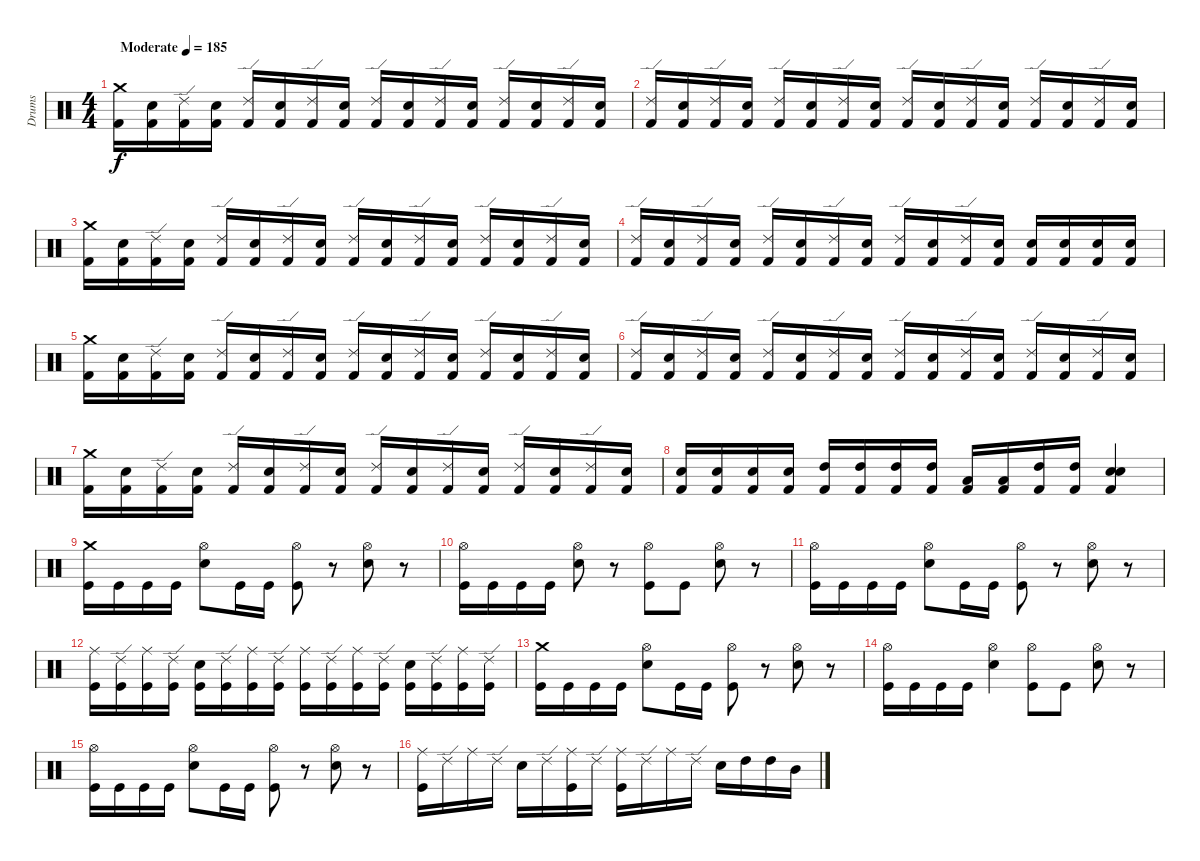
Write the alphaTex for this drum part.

\track ("Drums" "Drums") {instrument percussion}
\staff {score}
\articulation defaults
\ts (4 4)
\tempo (185 "Moderate")
\clef neutral
\ks c
("Crash medium (hit)" "Kick (hit) 2").16{dy f} ("Snare (hit) 2" "Kick (hit) 2").16 ("Ride (edge) 2" "Kick (hit) 2").16 ("Snare (hit) 2" "Kick (hit) 2").16 ("Ride (edge) 2" "Kick (hit) 2").16 ("Snare (hit) 2" "Kick (hit) 2").16 ("Ride (edge) 2" "Kick (hit) 2").16 ("Snare (hit) 2" "Kick (hit) 2").16 ("Ride (edge) 2" "Kick (hit) 2").16 ("Snare (hit) 2" "Kick (hit) 2").16 ("Ride (edge) 2" "Kick (hit) 2").16 ("Snare (hit) 2" "Kick (hit) 2").16 ("Ride (edge) 2" "Kick (hit) 2").16 ("Snare (hit) 2" "Kick (hit) 2").16 ("Ride (edge) 2" "Kick (hit) 2").16 ("Snare (hit) 2" "Kick (hit) 2").16 |
("Ride (edge) 2" "Kick (hit) 2").16 ("Snare (hit) 2" "Kick (hit) 2").16 ("Ride (edge) 2" "Kick (hit) 2").16 ("Snare (hit) 2" "Kick (hit) 2").16 ("Ride (edge) 2" "Kick (hit) 2").16 ("Snare (hit) 2" "Kick (hit) 2").16 ("Ride (edge) 2" "Kick (hit) 2").16 ("Snare (hit) 2" "Kick (hit) 2").16 ("Ride (edge) 2" "Kick (hit) 2").16 ("Snare (hit) 2" "Kick (hit) 2").16 ("Ride (edge) 2" "Kick (hit) 2").16 ("Snare (hit) 2" "Kick (hit) 2").16 ("Ride (edge) 2" "Kick (hit) 2").16 ("Snare (hit) 2" "Kick (hit) 2").16 ("Ride (edge) 2" "Kick (hit) 2").16 ("Snare (hit) 2" "Kick (hit) 2").16 |
("Crash medium (hit)" "Kick (hit) 2").16 ("Snare (hit) 2" "Kick (hit) 2").16 ("Ride (edge) 2" "Kick (hit) 2").16 ("Snare (hit) 2" "Kick (hit) 2").16 ("Ride (edge) 2" "Kick (hit) 2").16 ("Snare (hit) 2" "Kick (hit) 2").16 ("Ride (edge) 2" "Kick (hit) 2").16 ("Snare (hit) 2" "Kick (hit) 2").16 ("Ride (edge) 2" "Kick (hit) 2").16 ("Snare (hit) 2" "Kick (hit) 2").16 ("Ride (edge) 2" "Kick (hit) 2").16 ("Snare (hit) 2" "Kick (hit) 2").16 ("Ride (edge) 2" "Kick (hit) 2").16 ("Snare (hit) 2" "Kick (hit) 2").16 ("Ride (edge) 2" "Kick (hit) 2").16 ("Snare (hit) 2" "Kick (hit) 2").16 |
("Ride (edge) 2" "Kick (hit) 2").16 ("Snare (hit) 2" "Kick (hit) 2").16 ("Ride (edge) 2" "Kick (hit) 2").16 ("Snare (hit) 2" "Kick (hit) 2").16 ("Ride (edge) 2" "Kick (hit) 2").16 ("Snare (hit) 2" "Kick (hit) 2").16 ("Ride (edge) 2" "Kick (hit) 2").16 ("Snare (hit) 2" "Kick (hit) 2").16 ("Ride (edge) 2" "Kick (hit) 2").16 ("Snare (hit) 2" "Kick (hit) 2").16 ("Ride (edge) 2" "Kick (hit) 2").16 ("Snare (hit) 2" "Kick (hit) 2").16 ("Snare (hit) 2" "Kick (hit) 2").16 ("Snare (hit) 2" "Kick (hit) 2").16 ("Snare (hit) 2" "Kick (hit) 2").16 ("Snare (hit) 2" "Kick (hit) 2").16 |
("Crash medium (hit)" "Kick (hit) 2").16 ("Snare (hit) 2" "Kick (hit) 2").16 ("Ride (edge) 2" "Kick (hit) 2").16 ("Snare (hit) 2" "Kick (hit) 2").16 ("Ride (edge) 2" "Kick (hit) 2").16 ("Snare (hit) 2" "Kick (hit) 2").16 ("Ride (edge) 2" "Kick (hit) 2").16 ("Snare (hit) 2" "Kick (hit) 2").16 ("Ride (edge) 2" "Kick (hit) 2").16 ("Snare (hit) 2" "Kick (hit) 2").16 ("Ride (edge) 2" "Kick (hit) 2").16 ("Snare (hit) 2" "Kick (hit) 2").16 ("Ride (edge) 2" "Kick (hit) 2").16 ("Snare (hit) 2" "Kick (hit) 2").16 ("Ride (edge) 2" "Kick (hit) 2").16 ("Snare (hit) 2" "Kick (hit) 2").16 |
("Ride (edge) 2" "Kick (hit) 2").16 ("Snare (hit) 2" "Kick (hit) 2").16 ("Ride (edge) 2" "Kick (hit) 2").16 ("Snare (hit) 2" "Kick (hit) 2").16 ("Ride (edge) 2" "Kick (hit) 2").16 ("Snare (hit) 2" "Kick (hit) 2").16 ("Ride (edge) 2" "Kick (hit) 2").16 ("Snare (hit) 2" "Kick (hit) 2").16 ("Ride (edge) 2" "Kick (hit) 2").16 ("Snare (hit) 2" "Kick (hit) 2").16 ("Ride (edge) 2" "Kick (hit) 2").16 ("Snare (hit) 2" "Kick (hit) 2").16 ("Ride (edge) 2" "Kick (hit) 2").16 ("Snare (hit) 2" "Kick (hit) 2").16 ("Ride (edge) 2" "Kick (hit) 2").16 ("Snare (hit) 2" "Kick (hit) 2").16 |
("Crash medium (hit)" "Kick (hit) 2").16 ("Snare (hit) 2" "Kick (hit) 2").16 ("Ride (edge) 2" "Kick (hit) 2").16 ("Snare (hit) 2" "Kick (hit) 2").16 ("Ride (edge) 2" "Kick (hit) 2").16 ("Snare (hit) 2" "Kick (hit) 2").16 ("Ride (edge) 2" "Kick (hit) 2").16 ("Snare (hit) 2" "Kick (hit) 2").16 ("Ride (edge) 2" "Kick (hit) 2").16 ("Snare (hit) 2" "Kick (hit) 2").16 ("Ride (edge) 2" "Kick (hit) 2").16 ("Snare (hit) 2" "Kick (hit) 2").16 ("Ride (edge) 2" "Kick (hit) 2").16 ("Snare (hit) 2" "Kick (hit) 2").16 ("Ride (edge) 2" "Kick (hit) 2").16 ("Snare (hit) 2" "Kick (hit) 2").16 |
("Snare (hit) 2" "Kick (hit) 2").16 ("Snare (hit) 2" "Kick (hit) 2").16 ("Snare (hit) 2" "Kick (hit) 2").16 ("Snare (hit) 2" "Kick (hit) 2").16 ("High Tom (hit)" "Kick (hit) 2").16 ("High Tom (hit)" "Kick (hit) 2").16 ("High Tom (hit)" "Kick (hit) 2").16 ("High Tom (hit)" "Kick (hit) 2").16 ("Low Tom (hit)" "Kick (hit) 2").16 ("Low Tom (hit)" "Kick (hit) 2").16 ("High Tom (hit)" "Kick (hit) 2").16 ("High Tom (hit)" "Kick (hit) 2").16 ("Snare (hit) 2" "Snare (hit) 2" "Kick (hit) 2").4 |
("Kick (hit)" "Crash medium (hit)").16 "Kick (hit)".16 "Kick (hit)".16 "Kick (hit)".16 ("Hi-Hat (open)" "Snare (hit) 2").8 "Kick (hit)".16 "Kick (hit)".16 ("Kick (hit)" "Hi-Hat (open)").8 r.8 ("Snare (hit) 2" "Hi-Hat (open)").8 r.8 |
("Kick (hit)" "Hi-Hat (open)").16 "Kick (hit)".16 "Kick (hit)".16 "Kick (hit)".16 ("Hi-Hat (open)" "Snare (hit) 2").8 r.8 ("Kick (hit)" "Hi-Hat (open)").8 "Kick (hit)".8 ("Snare (hit) 2" "Hi-Hat (open)").8 r.8 |
("Kick (hit)" "Hi-Hat (open)").16 "Kick (hit)".16 "Kick (hit)".16 "Kick (hit)".16 ("Hi-Hat (open)" "Snare (hit) 2").8 "Kick (hit)".16 "Kick (hit)".16 ("Kick (hit)" "Hi-Hat (open)").8 r.8 ("Snare (hit) 2" "Hi-Hat (open)").8 r.8 |
("Kick (hit)" "Ride (middle)").16 ("Kick (hit)" "Ride (edge) 2").16 ("Kick (hit)" "Ride (middle)").16 ("Kick (hit)" "Ride (edge) 2").16 ("Kick (hit)" "Snare (hit) 2").16 ("Kick (hit)" "Ride (edge) 2").16 ("Kick (hit)" "Ride (middle)").16 ("Kick (hit)" "Ride (edge) 2").16 ("Kick (hit)" "Ride (middle)").16 ("Kick (hit)" "Ride (edge) 2").16 ("Kick (hit)" "Ride (middle)").16 ("Kick (hit)" "Ride (edge) 2").16 ("Kick (hit)" "Snare (hit) 2").16 ("Kick (hit)" "Ride (edge) 2").16 ("Kick (hit)" "Ride (middle)").16 ("Kick (hit)" "Ride (edge) 2").16 |
("Kick (hit)" "Crash medium (hit)").16 "Kick (hit)".16 "Kick (hit)".16 "Kick (hit)".16 ("Hi-Hat (open)" "Snare (hit) 2").8 "Kick (hit)".16 "Kick (hit)".16 ("Kick (hit)" "Hi-Hat (open)").8 r.8 ("Snare (hit) 2" "Hi-Hat (open)").8 r.8 |
("Kick (hit)" "Hi-Hat (open)").16 "Kick (hit)".16 "Kick (hit)".16 "Kick (hit)".16 ("Hi-Hat (open)" "Snare (hit) 2").4 ("Kick (hit)" "Hi-Hat (open)").8 "Kick (hit)".8 ("Snare (hit) 2" "Hi-Hat (open)").8 r.8 |
("Kick (hit)" "Hi-Hat (open)").16 "Kick (hit)".16 "Kick (hit)".16 "Kick (hit)".16 ("Hi-Hat (open)" "Snare (hit) 2").8 "Kick (hit)".16 "Kick (hit)".16 ("Kick (hit)" "Hi-Hat (open)").8 r.8 ("Snare (hit) 2" "Hi-Hat (open)").8 r.8 |
("Kick (hit)" "Ride (middle)").16 "Ride (edge) 2".16 "Ride (middle)".16 "Ride (edge) 2".16 "Snare (hit) 2".16 "Ride (edge) 2".16 ("Kick (hit)" "Ride (middle)").16 "Ride (edge) 2".16 ("Kick (hit)" "Ride (middle)").16 "Ride (edge) 2".16 "Ride (middle)".16 "Ride (edge) 2".16 "Snare (hit) 2".16 "High Tom (hit)".16 "High Tom (hit)".16 "Mid Tom (hit)".16
